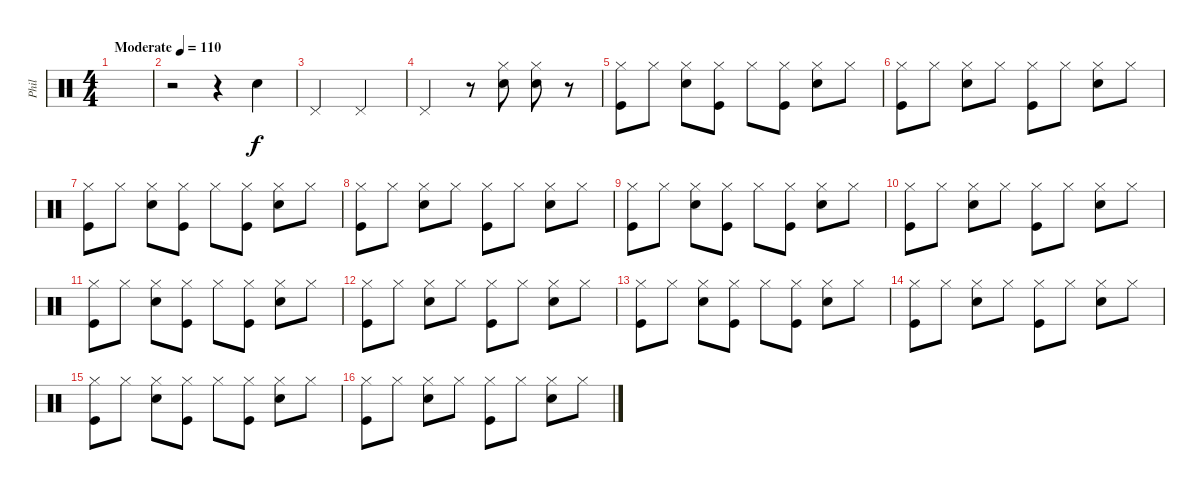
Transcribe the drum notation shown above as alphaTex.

\track ("Phil" "Phil") {instrument percussion}
\staff {score}
\articulation defaults
\ts (4 4)
\tempo (110 "Moderate")
\clef neutral
\ks c
|
r.2 r.4 "Snare (hit) 2".4 |
"Pedal Hi-Hat (hit)".2 "Pedal Hi-Hat (hit)".2 |
"Pedal Hi-Hat (hit)".2 r.8 ("Hi-Hat (closed)" "Snare (hit) 2").8 ("Hi-Hat (closed)" "Snare (hit) 2").8 r.8 |
("Hi-Hat (closed)" "Kick (hit)").8 "Hi-Hat (closed)".8 ("Hi-Hat (closed)" "Snare (hit) 2").8 ("Hi-Hat (closed)" "Kick (hit)").8 "Hi-Hat (closed)".8 ("Hi-Hat (closed)" "Kick (hit)").8 ("Hi-Hat (closed)" "Snare (hit) 2").8 "Hi-Hat (closed)".8 |
("Hi-Hat (closed)" "Kick (hit)").8 "Hi-Hat (closed)".8 ("Hi-Hat (closed)" "Snare (hit) 2").8 "Hi-Hat (closed)".8 ("Hi-Hat (closed)" "Kick (hit)").8 "Hi-Hat (closed)".8 ("Hi-Hat (closed)" "Snare (hit) 2").8 "Hi-Hat (closed)".8 |
("Hi-Hat (closed)" "Kick (hit)").8 "Hi-Hat (closed)".8 ("Hi-Hat (closed)" "Snare (hit) 2").8 ("Hi-Hat (closed)" "Kick (hit)").8 "Hi-Hat (closed)".8 ("Hi-Hat (closed)" "Kick (hit)").8 ("Hi-Hat (closed)" "Snare (hit) 2").8 "Hi-Hat (closed)".8 |
("Hi-Hat (closed)" "Kick (hit)").8 "Hi-Hat (closed)".8 ("Hi-Hat (closed)" "Snare (hit) 2").8 "Hi-Hat (closed)".8 ("Hi-Hat (closed)" "Kick (hit)").8 "Hi-Hat (closed)".8 ("Hi-Hat (closed)" "Snare (hit) 2").8 "Hi-Hat (closed)".8 |
("Hi-Hat (closed)" "Kick (hit)").8 "Hi-Hat (closed)".8 ("Hi-Hat (closed)" "Snare (hit) 2").8 ("Hi-Hat (closed)" "Kick (hit)").8 "Hi-Hat (closed)".8 ("Hi-Hat (closed)" "Kick (hit)").8 ("Hi-Hat (closed)" "Snare (hit) 2").8 "Hi-Hat (closed)".8 |
("Hi-Hat (closed)" "Kick (hit)").8 "Hi-Hat (closed)".8 ("Hi-Hat (closed)" "Snare (hit) 2").8 "Hi-Hat (closed)".8 ("Hi-Hat (closed)" "Kick (hit)").8 "Hi-Hat (closed)".8 ("Hi-Hat (closed)" "Snare (hit) 2").8 "Hi-Hat (closed)".8 |
("Hi-Hat (closed)" "Kick (hit)").8 "Hi-Hat (closed)".8 ("Hi-Hat (closed)" "Snare (hit) 2").8 ("Hi-Hat (closed)" "Kick (hit)").8 "Hi-Hat (closed)".8 ("Hi-Hat (closed)" "Kick (hit)").8 ("Hi-Hat (closed)" "Snare (hit) 2").8 "Hi-Hat (closed)".8 |
("Hi-Hat (closed)" "Kick (hit)").8 "Hi-Hat (closed)".8 ("Hi-Hat (closed)" "Snare (hit) 2").8 "Hi-Hat (closed)".8 ("Hi-Hat (closed)" "Kick (hit)").8 "Hi-Hat (closed)".8 ("Hi-Hat (closed)" "Snare (hit) 2").8 "Hi-Hat (closed)".8 |
("Hi-Hat (closed)" "Kick (hit)").8 "Hi-Hat (closed)".8 ("Hi-Hat (closed)" "Snare (hit) 2").8 ("Hi-Hat (closed)" "Kick (hit)").8 "Hi-Hat (closed)".8 ("Hi-Hat (closed)" "Kick (hit)").8 ("Hi-Hat (closed)" "Snare (hit) 2").8 "Hi-Hat (closed)".8 |
("Hi-Hat (closed)" "Kick (hit)").8 "Hi-Hat (closed)".8 ("Hi-Hat (closed)" "Snare (hit) 2").8 "Hi-Hat (closed)".8 ("Hi-Hat (closed)" "Kick (hit)").8 "Hi-Hat (closed)".8 ("Hi-Hat (closed)" "Snare (hit) 2").8 "Hi-Hat (closed)".8 |
("Hi-Hat (closed)" "Kick (hit)").8 "Hi-Hat (closed)".8 ("Hi-Hat (closed)" "Snare (hit) 2").8 ("Hi-Hat (closed)" "Kick (hit)").8 "Hi-Hat (closed)".8 ("Hi-Hat (closed)" "Kick (hit)").8 ("Hi-Hat (closed)" "Snare (hit) 2").8 "Hi-Hat (closed)".8 |
("Hi-Hat (closed)" "Kick (hit)").8 "Hi-Hat (closed)".8 ("Hi-Hat (closed)" "Snare (hit) 2").8 "Hi-Hat (closed)".8 ("Hi-Hat (closed)" "Kick (hit)").8 "Hi-Hat (closed)".8 ("Hi-Hat (closed)" "Snare (hit) 2").8 "Hi-Hat (closed)".8
